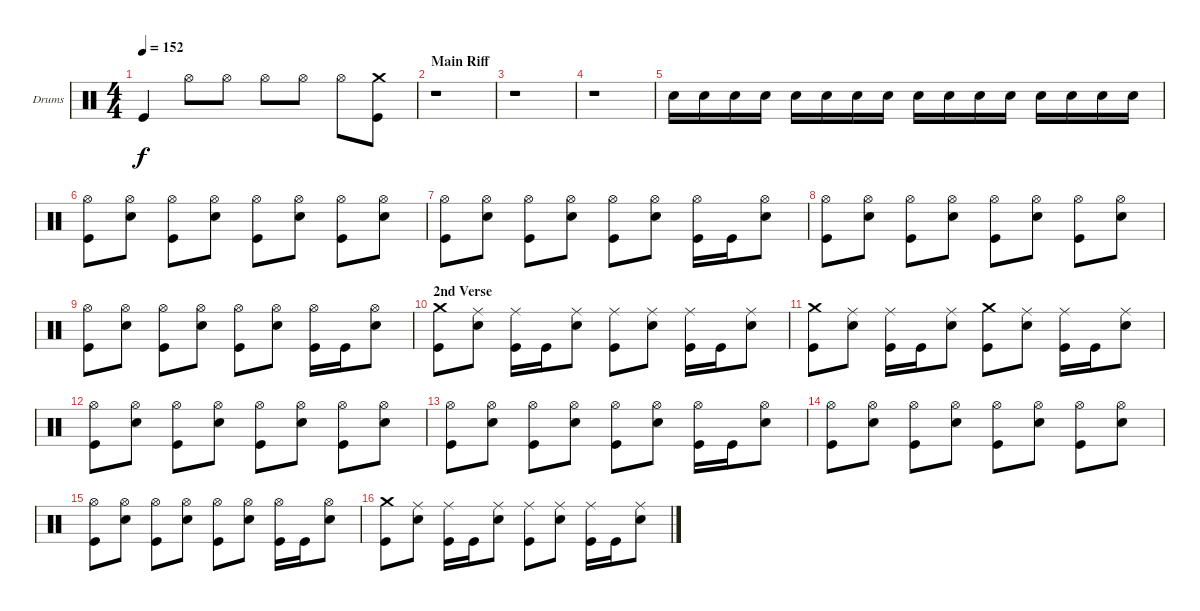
\bracketExtendMode groupsimilarinstruments
\firstSystemTrackNameOrientation horizontal
\otherSystemsTrackNameOrientation horizontal
\track ("Drumkit" "Drums") {instrument percussion}
\staff {score}
\articulation defaults
\ts (4 4)
\tempo 152
\clef neutral
\ks c "Kick (hit)".4{dy f} "Hi-Hat (open)".8 "Hi-Hat (open)".8 "Hi-Hat (open)".8 "Hi-Hat (open)".8 "Hi-Hat (open)".8
("Crash medium (hit)" "Kick (hit)").8 |
\section ("" "Main Riff")
r.1 |
r.1 |
r.1 |
"Snare (hit) 2".16 "Snare (hit) 2".16 "Snare (hit) 2".16 "Snare (hit) 2".16 "Snare (hit) 2".16 "Snare (hit) 2".16 "Snare (hit) 2".16 "Snare (hit) 2".16 "Snare (hit) 2".16 "Snare (hit) 2".16 "Snare (hit) 2".16 "Snare (hit) 2".16 "Snare (hit) 2".16 "Snare (hit) 2".16 "Snare (hit) 2".16 "Snare (hit) 2".16 |
("Hi-Hat (open)" "Kick (hit)").8 ("Hi-Hat (open)" "Snare (hit) 2").8 ("Hi-Hat (open)" "Kick (hit)").8 ("Hi-Hat (open)" "Snare (hit) 2").8 ("Hi-Hat (open)" "Kick (hit)").8 ("Hi-Hat (open)" "Snare (hit) 2").8 ("Hi-Hat (open)" "Kick (hit)").8 ("Hi-Hat (open)" "Snare (hit) 2").8 |
("Hi-Hat (open)" "Kick (hit)").8 ("Hi-Hat (open)" "Snare (hit) 2").8 ("Hi-Hat (open)" "Kick (hit)").8 ("Hi-Hat (open)" "Snare (hit) 2").8 ("Hi-Hat (open)" "Kick (hit)").8 ("Hi-Hat (open)" "Snare (hit) 2").8 ("Hi-Hat (open)" "Kick (hit)").16 "Kick (hit)".16 ("Hi-Hat (open)" "Snare (hit) 2").8 |
("Hi-Hat (open)" "Kick (hit)").8 ("Hi-Hat (open)" "Snare (hit) 2").8 ("Hi-Hat (open)" "Kick (hit)").8 ("Hi-Hat (open)" "Snare (hit) 2").8 ("Hi-Hat (open)" "Kick (hit)").8 ("Hi-Hat (open)" "Snare (hit) 2").8 ("Hi-Hat (open)" "Kick (hit)").8 ("Hi-Hat (open)" "Snare (hit) 2").8 |
("Hi-Hat (open)" "Kick (hit)").8 ("Hi-Hat (open)" "Snare (hit) 2").8 ("Hi-Hat (open)" "Kick (hit)").8 ("Hi-Hat (open)" "Snare (hit) 2").8 ("Hi-Hat (open)" "Kick (hit)").8 ("Hi-Hat (open)" "Snare (hit) 2").8 ("Hi-Hat (open)" "Kick (hit)").16 "Kick (hit)".16 ("Hi-Hat (open)" "Snare (hit) 2").8 |
\section ("" "2nd Verse")
("Crash medium (hit)" "Kick (hit)").8 ("Ride (middle)" "Snare (hit) 2").8 ("Ride (middle)" "Kick (hit)").16 "Kick (hit)".16 ("Ride (middle)" "Snare (hit) 2").8 ("Ride (middle)" "Kick (hit)").8 ("Ride (middle)" "Snare (hit) 2").8 ("Ride (middle)" "Kick (hit)").16 "Kick (hit)".16 ("Ride (middle)" "Snare (hit) 2").8 |
("Crash medium (hit)" "Kick (hit)").8 ("Ride (middle)" "Snare (hit) 2").8 ("Ride (middle)" "Kick (hit)").16 "Kick (hit)".16 ("Ride (middle)" "Snare (hit) 2").8 ("Crash medium (hit)" "Kick (hit)").8 ("Ride (middle)" "Snare (hit) 2").8 ("Ride (middle)" "Kick (hit)").16 "Kick (hit)".16 ("Ride (middle)" "Snare (hit) 2").8 |
("Hi-Hat (open)" "Kick (hit)").8 ("Hi-Hat (open)" "Snare (hit) 2").8 ("Hi-Hat (open)" "Kick (hit)").8 ("Hi-Hat (open)" "Snare (hit) 2").8 ("Hi-Hat (open)" "Kick (hit)").8 ("Hi-Hat (open)" "Snare (hit) 2").8 ("Hi-Hat (open)" "Kick (hit)").8 ("Hi-Hat (open)" "Snare (hit) 2").8 |
("Hi-Hat (open)" "Kick (hit)").8 ("Hi-Hat (open)" "Snare (hit) 2").8 ("Hi-Hat (open)" "Kick (hit)").8 ("Hi-Hat (open)" "Snare (hit) 2").8 ("Hi-Hat (open)" "Kick (hit)").8 ("Hi-Hat (open)" "Snare (hit) 2").8 ("Hi-Hat (open)" "Kick (hit)").16 "Kick (hit)".16 ("Hi-Hat (open)" "Snare (hit) 2").8 |
("Hi-Hat (open)" "Kick (hit)").8 ("Hi-Hat (open)" "Snare (hit) 2").8 ("Hi-Hat (open)" "Kick (hit)").8 ("Hi-Hat (open)" "Snare (hit) 2").8 ("Hi-Hat (open)" "Kick (hit)").8 ("Hi-Hat (open)" "Snare (hit) 2").8 ("Hi-Hat (open)" "Kick (hit)").8 ("Hi-Hat (open)" "Snare (hit) 2").8 |
("Hi-Hat (open)" "Kick (hit)").8 ("Hi-Hat (open)" "Snare (hit) 2").8 ("Hi-Hat (open)" "Kick (hit)").8 ("Hi-Hat (open)" "Snare (hit) 2").8 ("Hi-Hat (open)" "Kick (hit)").8 ("Hi-Hat (open)" "Snare (hit) 2").8 ("Hi-Hat (open)" "Kick (hit)").16 "Kick (hit)".16 ("Hi-Hat (open)" "Snare (hit) 2").8 |
("Crash medium (hit)" "Kick (hit)").8 ("Ride (middle)" "Snare (hit) 2").8 ("Ride (middle)" "Kick (hit)").16 "Kick (hit)".16 ("Ride (middle)" "Snare (hit) 2").8 ("Ride (middle)" "Kick (hit)").8 ("Ride (middle)" "Snare (hit) 2").8 ("Ride (middle)" "Kick (hit)").16 "Kick (hit)".16 ("Ride (middle)" "Snare (hit) 2").8
